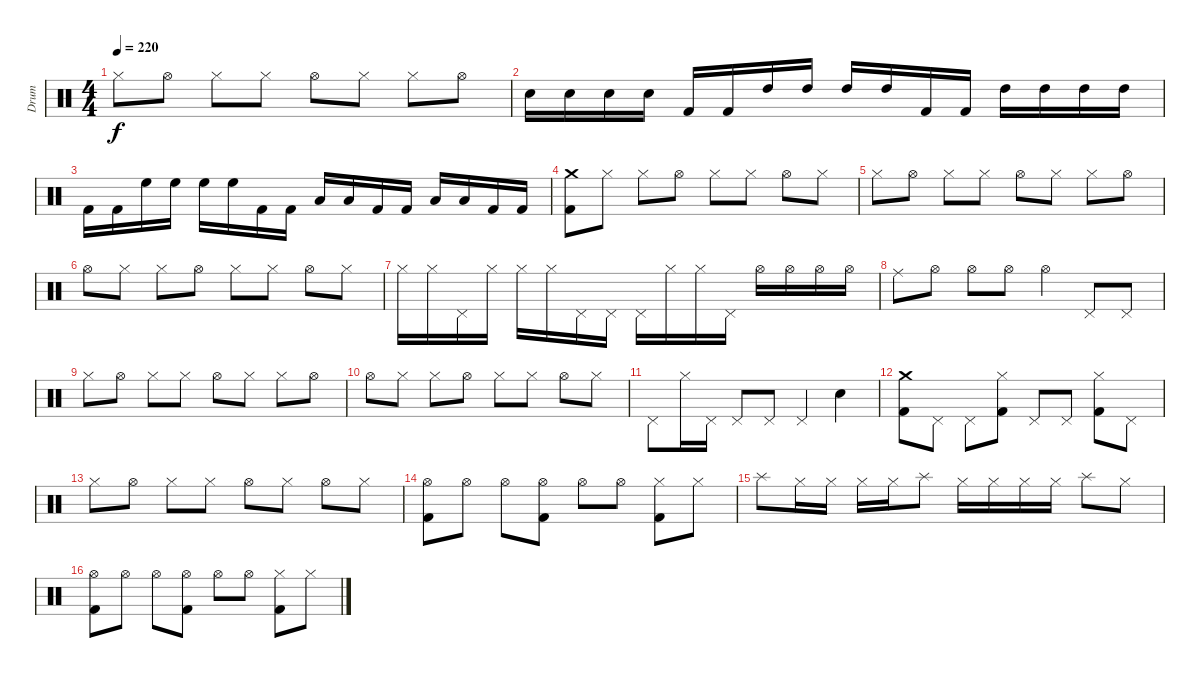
\track ("Drum" "Drum") {instrument percussion}
\staff {score}
\articulation defaults
\ts (4 4)
\tempo 220
\clef neutral
\ks c "Hi-Hat (closed)".8{dy f} "Hi-Hat (open)".8 "Hi-Hat (closed)".8 "Hi-Hat (closed)".8 "Hi-Hat (open)".8 "Hi-Hat (closed)".8 "Hi-Hat (closed)".8 "Hi-Hat (open)".8
|
"Electric Snare (hit)".16 "Electric Snare (hit)".16 "Electric Snare (hit)".16 "Electric Snare (hit)".16 "Kick (hit) 2".16 "Kick (hit) 2".16 "High Tom (hit)".16 "High Tom (hit)".16 "High Tom (hit)".16 "High Tom (hit)".16 "Kick (hit) 2".16 "Kick (hit) 2".16 "High Tom (hit)".16 "High Tom (hit)".16 "High Tom (hit)".16 "High Tom (hit)".16 |
"Kick (hit) 2".16 "Kick (hit) 2".16 "High Floor Tom (hit)".16 "High Floor Tom (hit)".16 "High Floor Tom (hit)".16 "High Floor Tom (hit)".16 "Kick (hit) 2".16 "Kick (hit) 2".16 "Low Floor Tom (hit)".16 "Low Floor Tom (hit)".16 "Kick (hit) 2".16 "Kick (hit) 2".16 "Low Floor Tom (hit)".16 "Low Floor Tom (hit)".16 "Kick (hit) 2".16 "Kick (hit) 2".16 |
("Crash medium (hit)" "Kick (hit) 2").8 "Hi-Hat (closed)".8 "Hi-Hat (closed)".8 "Hi-Hat (open)".8 "Hi-Hat (closed)".8 "Hi-Hat (closed)".8 "Hi-Hat (open)".8 "Hi-Hat (closed)".8 |
"Hi-Hat (closed)".8 "Hi-Hat (open)".8 "Hi-Hat (closed)".8 "Hi-Hat (closed)".8 "Hi-Hat (open)".8 "Hi-Hat (closed)".8 "Hi-Hat (closed)".8 "Hi-Hat (open)".8 |
"Hi-Hat (open)".8 "Hi-Hat (closed)".8 "Hi-Hat (closed)".8 "Hi-Hat (open)".8 "Hi-Hat (closed)".8 "Hi-Hat (closed)".8 "Hi-Hat (open)".8 "Hi-Hat (closed)".8 |
"Hi-Hat (closed)".16 "Hi-Hat (closed)".16 "Pedal Hi-Hat (hit)".16 "Hi-Hat (closed)".16 "Hi-Hat (closed)".16 "Hi-Hat (closed)".16 "Pedal Hi-Hat (hit)".16 "Pedal Hi-Hat (hit)".16 "Pedal Hi-Hat (hit)".16 "Hi-Hat (closed)".16 "Hi-Hat (closed)".16 "Pedal Hi-Hat (hit)".16 "Hi-Hat (open)".16 "Hi-Hat (open)".16 "Hi-Hat (open)".16 "Hi-Hat (open)".16 |
"Ride (middle)".8 "Hi-Hat (open)".8 "Hi-Hat (open)".8 "Hi-Hat (open)".8 "Hi-Hat (open)".4 "Pedal Hi-Hat (hit)".8 "Pedal Hi-Hat (hit)".8 |
"Hi-Hat (closed)".8 "Hi-Hat (open)".8 "Hi-Hat (closed)".8 "Hi-Hat (closed)".8 "Hi-Hat (open)".8 "Hi-Hat (closed)".8 "Hi-Hat (closed)".8 "Hi-Hat (open)".8 |
"Hi-Hat (open)".8 "Hi-Hat (closed)".8 "Hi-Hat (closed)".8 "Hi-Hat (open)".8 "Hi-Hat (closed)".8 "Hi-Hat (closed)".8 "Hi-Hat (open)".8 "Hi-Hat (closed)".8 |
"Pedal Hi-Hat (hit)".8 "Hi-Hat (closed)".16 "Pedal Hi-Hat (hit)".16 "Pedal Hi-Hat (hit)".8 "Pedal Hi-Hat (hit)".8 "Pedal Hi-Hat (hit)".4 "Electric Snare (hit)".4 |
("Crash medium (hit)" "Kick (hit) 2").8 "Pedal Hi-Hat (hit)".8 "Pedal Hi-Hat (hit)".8 ("Hi-Hat (closed)" "Kick (hit) 2").8 "Pedal Hi-Hat (hit)".8 "Pedal Hi-Hat (hit)".8 ("Hi-Hat (closed)" "Kick (hit) 2").8 "Pedal Hi-Hat (hit)".8 |
"Hi-Hat (closed)".8 "Hi-Hat (open)".8 "Hi-Hat (closed)".8 "Hi-Hat (closed)".8 "Hi-Hat (open)".8 "Hi-Hat (closed)".8 "Hi-Hat (open)".8 "Hi-Hat (closed)".8 |
("Hi-Hat (open)" "Kick (hit) 2").8 "Hi-Hat (open)".8 "Hi-Hat (open)".8 ("Hi-Hat (open)" "Kick (hit) 2").8 "Hi-Hat (open)".8 "Hi-Hat (open)".8 ("Hi-Hat (closed)" "Kick (hit) 2").8 "Hi-Hat (closed)".8 |
"Splash (hit)".8 "Hi-Hat (closed)".16 "Hi-Hat (closed)".16 "Hi-Hat (closed)".16 "Hi-Hat (closed)".16 "Splash (hit)".8 "Hi-Hat (closed)".16 "Hi-Hat (closed)".16 "Hi-Hat (closed)".16 "Hi-Hat (closed)".16 "Splash (hit)".8 "Hi-Hat (closed)".8 |
("Hi-Hat (open)" "Kick (hit) 2").8 "Hi-Hat (open)".8 "Hi-Hat (open)".8 ("Hi-Hat (open)" "Kick (hit) 2").8 "Hi-Hat (open)".8 "Hi-Hat (open)".8 ("Hi-Hat (closed)" "Kick (hit) 2").8 "Hi-Hat (closed)".8
